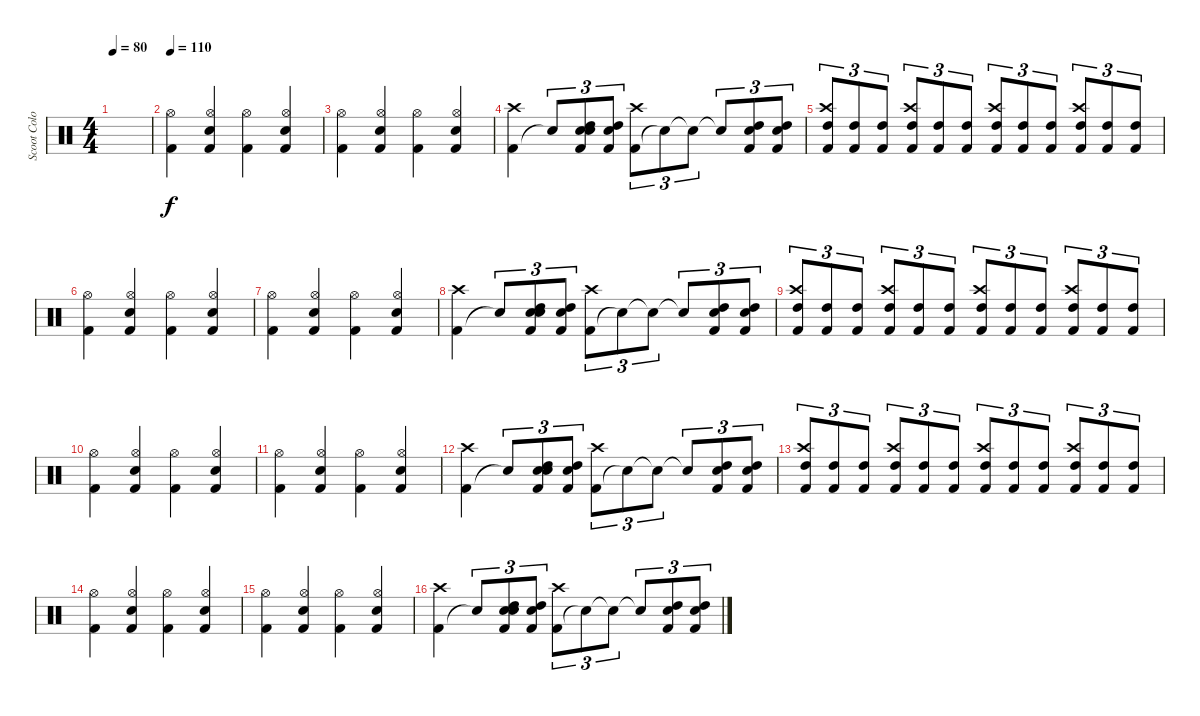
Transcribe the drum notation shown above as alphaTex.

\track ("Scoot Colombus" "Scoot Colo") {instrument percussion}
\staff {score}
\articulation defaults
\ts (4 4)
\tempo 80
\clef neutral
\ks c
|
\tempo 110
("Kick (hit) 2" "Hi-Hat (open)").4 ("Kick (hit) 2" "Snare (hit) 2" "Hi-Hat (open)").4 ("Kick (hit) 2" "Hi-Hat (open)").4 ("Kick (hit) 2" "Snare (hit) 2" "Hi-Hat (open)").4 |
("Kick (hit) 2" "Hi-Hat (open)").4 ("Kick (hit) 2" "Snare (hit) 2" "Hi-Hat (open)").4 ("Kick (hit) 2" "Hi-Hat (open)").4 ("Kick (hit) 2" "Snare (hit) 2" "Hi-Hat (open)").4 |
("Kick (hit) 2" "Crash high (hit)").4 "Snare (hit)"{t}.8{tu (3 2)} ("Kick (hit) 2" "High Tom (hit)" "Snare (hit) 2" "Snare (hit)").8{tu (3 2)} ("Kick (hit) 2" "High Tom (hit)" "Snare (hit) 2").8{tu (3 2)} ("Kick (hit) 2" "Crash high (hit)").8{tu (3 2)} "Snare (hit)"{t}.8{tu (3 2)} "Snare (hit)"{t}.8{tu (3 2)} "Snare (hit)"{t}.8{tu (3 2)} ("Kick (hit) 2" "High Tom (hit)" "Snare (hit) 2").8{tu (3 2)} ("Kick (hit) 2" "High Tom (hit)" "Snare (hit) 2").8{tu (3 2)} |
("Kick (hit) 2" "High Tom (hit)" "Crash high (hit)").8{tu (3 2)} ("Kick (hit) 2" "High Tom (hit)").8{tu (3 2)} ("Kick (hit) 2" "High Tom (hit)").8{tu (3 2)} ("Kick (hit) 2" "High Tom (hit)" "Crash high (hit)").8{tu (3 2)} ("Kick (hit) 2" "High Tom (hit)").8{tu (3 2)} ("Kick (hit) 2" "High Tom (hit)").8{tu (3 2)} ("Kick (hit) 2" "High Tom (hit)" "Crash high (hit)").8{tu (3 2)} ("Kick (hit) 2" "High Tom (hit)").8{tu (3 2)} ("Kick (hit) 2" "High Tom (hit)").8{tu (3 2)} ("Kick (hit) 2" "High Tom (hit)" "Crash high (hit)").8{tu (3 2)} ("Kick (hit) 2" "High Tom (hit)").8{tu (3 2)} ("Kick (hit) 2" "High Tom (hit)").8{tu (3 2)} |
("Kick (hit) 2" "Hi-Hat (open)").4 ("Kick (hit) 2" "Snare (hit) 2" "Hi-Hat (open)").4 ("Kick (hit) 2" "Hi-Hat (open)").4 ("Kick (hit) 2" "Snare (hit) 2" "Hi-Hat (open)").4 |
("Kick (hit) 2" "Hi-Hat (open)").4 ("Kick (hit) 2" "Snare (hit) 2" "Hi-Hat (open)").4 ("Kick (hit) 2" "Hi-Hat (open)").4 ("Kick (hit) 2" "Snare (hit) 2" "Hi-Hat (open)").4 |
("Kick (hit) 2" "Crash high (hit)").4 "Snare (hit)"{t}.8{tu (3 2)} ("Kick (hit) 2" "High Tom (hit)" "Snare (hit) 2" "Snare (hit)").8{tu (3 2)} ("Kick (hit) 2" "High Tom (hit)" "Snare (hit) 2").8{tu (3 2)} ("Kick (hit) 2" "Crash high (hit)").8{tu (3 2)} "Snare (hit)"{t}.8{tu (3 2)} "Snare (hit)"{t}.8{tu (3 2)} "Snare (hit)"{t}.8{tu (3 2)} ("Kick (hit) 2" "High Tom (hit)" "Snare (hit) 2").8{tu (3 2)} ("Kick (hit) 2" "High Tom (hit)" "Snare (hit) 2").8{tu (3 2)} |
("Kick (hit) 2" "High Tom (hit)" "Crash high (hit)").8{tu (3 2)} ("Kick (hit) 2" "High Tom (hit)").8{tu (3 2)} ("Kick (hit) 2" "High Tom (hit)").8{tu (3 2)} ("Kick (hit) 2" "High Tom (hit)" "Crash high (hit)").8{tu (3 2)} ("Kick (hit) 2" "High Tom (hit)").8{tu (3 2)} ("Kick (hit) 2" "High Tom (hit)").8{tu (3 2)} ("Kick (hit) 2" "High Tom (hit)" "Crash high (hit)").8{tu (3 2)} ("Kick (hit) 2" "High Tom (hit)").8{tu (3 2)} ("Kick (hit) 2" "High Tom (hit)").8{tu (3 2)} ("Kick (hit) 2" "High Tom (hit)" "Crash high (hit)").8{tu (3 2)} ("Kick (hit) 2" "High Tom (hit)").8{tu (3 2)} ("Kick (hit) 2" "High Tom (hit)").8{tu (3 2)} |
("Kick (hit) 2" "Hi-Hat (open)").4 ("Kick (hit) 2" "Snare (hit) 2" "Hi-Hat (open)").4 ("Kick (hit) 2" "Hi-Hat (open)").4 ("Kick (hit) 2" "Snare (hit) 2" "Hi-Hat (open)").4 |
("Kick (hit) 2" "Hi-Hat (open)").4 ("Kick (hit) 2" "Snare (hit) 2" "Hi-Hat (open)").4 ("Kick (hit) 2" "Hi-Hat (open)").4 ("Kick (hit) 2" "Snare (hit) 2" "Hi-Hat (open)").4 |
("Kick (hit) 2" "Crash high (hit)").4 "Snare (hit)"{t}.8{tu (3 2)} ("Kick (hit) 2" "High Tom (hit)" "Snare (hit) 2" "Snare (hit)").8{tu (3 2)} ("Kick (hit) 2" "High Tom (hit)" "Snare (hit) 2").8{tu (3 2)} ("Kick (hit) 2" "Crash high (hit)").8{tu (3 2)} "Snare (hit)"{t}.8{tu (3 2)} "Snare (hit)"{t}.8{tu (3 2)} "Snare (hit)"{t}.8{tu (3 2)} ("Kick (hit) 2" "High Tom (hit)" "Snare (hit) 2").8{tu (3 2)} ("Kick (hit) 2" "High Tom (hit)" "Snare (hit) 2").8{tu (3 2)} |
("Kick (hit) 2" "High Tom (hit)" "Crash high (hit)").8{tu (3 2)} ("Kick (hit) 2" "High Tom (hit)").8{tu (3 2)} ("Kick (hit) 2" "High Tom (hit)").8{tu (3 2)} ("Kick (hit) 2" "High Tom (hit)" "Crash high (hit)").8{tu (3 2)} ("Kick (hit) 2" "High Tom (hit)").8{tu (3 2)} ("Kick (hit) 2" "High Tom (hit)").8{tu (3 2)} ("Kick (hit) 2" "High Tom (hit)" "Crash high (hit)").8{tu (3 2)} ("Kick (hit) 2" "High Tom (hit)").8{tu (3 2)} ("Kick (hit) 2" "High Tom (hit)").8{tu (3 2)} ("Kick (hit) 2" "High Tom (hit)" "Crash high (hit)").8{tu (3 2)} ("Kick (hit) 2" "High Tom (hit)").8{tu (3 2)} ("Kick (hit) 2" "High Tom (hit)").8{tu (3 2)} |
("Kick (hit) 2" "Hi-Hat (open)").4 ("Kick (hit) 2" "Snare (hit) 2" "Hi-Hat (open)").4 ("Kick (hit) 2" "Hi-Hat (open)").4 ("Kick (hit) 2" "Snare (hit) 2" "Hi-Hat (open)").4 |
("Kick (hit) 2" "Hi-Hat (open)").4 ("Kick (hit) 2" "Snare (hit) 2" "Hi-Hat (open)").4 ("Kick (hit) 2" "Hi-Hat (open)").4 ("Kick (hit) 2" "Snare (hit) 2" "Hi-Hat (open)").4 |
("Kick (hit) 2" "Crash high (hit)").4 "Snare (hit)"{t}.8{tu (3 2)} ("Kick (hit) 2" "High Tom (hit)" "Snare (hit) 2" "Snare (hit)").8{tu (3 2)} ("Kick (hit) 2" "High Tom (hit)" "Snare (hit) 2").8{tu (3 2)} ("Kick (hit) 2" "Crash high (hit)").8{tu (3 2)} "Snare (hit)"{t}.8{tu (3 2)} "Snare (hit)"{t}.8{tu (3 2)} "Snare (hit)"{t}.8{tu (3 2)} ("Kick (hit) 2" "High Tom (hit)" "Snare (hit) 2").8{tu (3 2)} ("Kick (hit) 2" "High Tom (hit)" "Snare (hit) 2").8{tu (3 2)}
